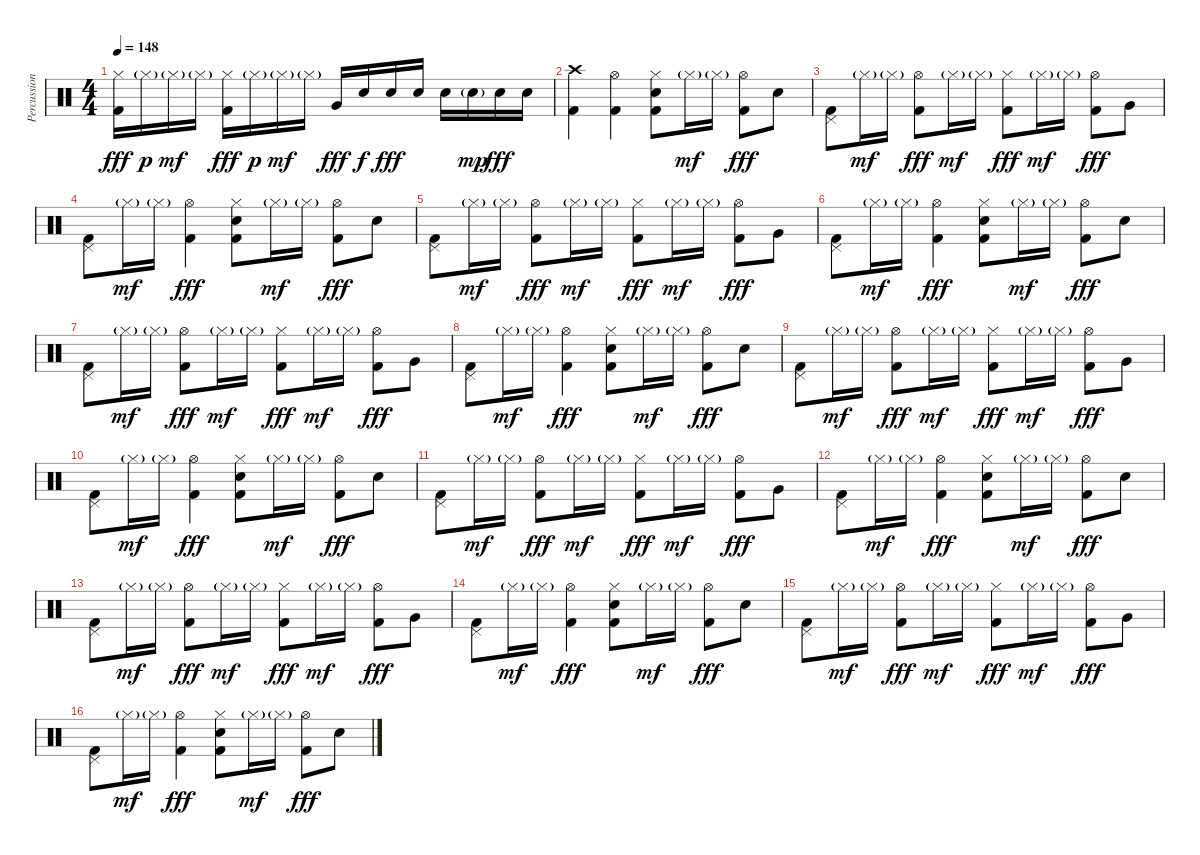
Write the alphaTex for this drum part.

\track ("Percussion" "Percussion") {instrument percussion}
\staff {score}
\articulation defaults
\ts (4 4)
\tempo 148
\clef neutral
\ks c
("Hi-Hat (closed)" "Kick (hit) 2").16{dy fff} "Hi-Hat (closed)"{g}.16{dy p} "Hi-Hat (closed)"{g}.16{dy mf} "Hi-Hat (closed)"{g}.16 ("Hi-Hat (closed)" "Kick (hit) 2").16{dy fff} "Hi-Hat (closed)"{g}.16{dy p} "Hi-Hat (closed)"{g}.16{dy mf} "Hi-Hat (closed)"{g}.16 "Very Low Tom (hit)".16{dy fff} "Electric Snare (hit)".16{dy f} "Electric Snare (hit)".16{dy fff} "Electric Snare (hit)".16 "Electric Snare (hit)".16 "Electric Snare (hit)"{g}.16{dy mp} "Electric Snare (hit)".16{dy fff} "Electric Snare (hit)".16 |
("Crash high (hit)" "Kick (hit) 2").4 ("Hi-Hat (open)" "Kick (hit) 2").4 ("Hi-Hat (closed)" "Kick (hit) 2" "Electric Snare (hit)").8 "Hi-Hat (closed)"{g}.16{dy mf} "Hi-Hat (closed)"{g}.16 ("Hi-Hat (open)" "Kick (hit) 2").8{dy fff} "Electric Snare (hit)".8 |
("Pedal Hi-Hat (hit)" "Kick (hit) 2").8 "Hi-Hat (closed)"{g}.16{dy mf} "Hi-Hat (closed)"{g}.16 ("Hi-Hat (open)" "Kick (hit) 2").8{dy fff} "Hi-Hat (closed)"{g}.16{dy mf} "Hi-Hat (closed)"{g}.16 ("Hi-Hat (closed)" "Kick (hit) 2").8{dy fff} "Hi-Hat (closed)"{g}.16{dy mf} "Hi-Hat (closed)"{g}.16 ("Hi-Hat (open)" "Kick (hit) 2").8{dy fff} "Very Low Tom (hit)".8 |
("Pedal Hi-Hat (hit)" "Kick (hit) 2").8 "Hi-Hat (closed)"{g}.16{dy mf} "Hi-Hat (closed)"{g}.16 ("Hi-Hat (open)" "Kick (hit) 2").4{dy fff} ("Hi-Hat (closed)" "Kick (hit) 2" "Electric Snare (hit)").8 "Hi-Hat (closed)"{g}.16{dy mf} "Hi-Hat (closed)"{g}.16 ("Hi-Hat (open)" "Kick (hit) 2").8{dy fff} "Electric Snare (hit)".8 |
("Pedal Hi-Hat (hit)" "Kick (hit) 2").8 "Hi-Hat (closed)"{g}.16{dy mf} "Hi-Hat (closed)"{g}.16 ("Hi-Hat (open)" "Kick (hit) 2").8{dy fff} "Hi-Hat (closed)"{g}.16{dy mf} "Hi-Hat (closed)"{g}.16 ("Hi-Hat (closed)" "Kick (hit) 2").8{dy fff} "Hi-Hat (closed)"{g}.16{dy mf} "Hi-Hat (closed)"{g}.16 ("Hi-Hat (open)" "Kick (hit) 2").8{dy fff} "Very Low Tom (hit)".8 |
("Pedal Hi-Hat (hit)" "Kick (hit) 2").8 "Hi-Hat (closed)"{g}.16{dy mf} "Hi-Hat (closed)"{g}.16 ("Hi-Hat (open)" "Kick (hit) 2").4{dy fff} ("Hi-Hat (closed)" "Kick (hit) 2" "Electric Snare (hit)").8 "Hi-Hat (closed)"{g}.16{dy mf} "Hi-Hat (closed)"{g}.16 ("Hi-Hat (open)" "Kick (hit) 2").8{dy fff} "Electric Snare (hit)".8 |
("Pedal Hi-Hat (hit)" "Kick (hit) 2").8 "Hi-Hat (closed)"{g}.16{dy mf} "Hi-Hat (closed)"{g}.16 ("Hi-Hat (open)" "Kick (hit) 2").8{dy fff} "Hi-Hat (closed)"{g}.16{dy mf} "Hi-Hat (closed)"{g}.16 ("Hi-Hat (closed)" "Kick (hit) 2").8{dy fff} "Hi-Hat (closed)"{g}.16{dy mf} "Hi-Hat (closed)"{g}.16 ("Hi-Hat (open)" "Kick (hit) 2").8{dy fff} "Very Low Tom (hit)".8 |
("Pedal Hi-Hat (hit)" "Kick (hit) 2").8 "Hi-Hat (closed)"{g}.16{dy mf} "Hi-Hat (closed)"{g}.16 ("Hi-Hat (open)" "Kick (hit) 2").4{dy fff} ("Hi-Hat (closed)" "Kick (hit) 2" "Electric Snare (hit)").8 "Hi-Hat (closed)"{g}.16{dy mf} "Hi-Hat (closed)"{g}.16 ("Hi-Hat (open)" "Kick (hit) 2").8{dy fff} "Electric Snare (hit)".8 |
("Pedal Hi-Hat (hit)" "Kick (hit) 2").8 "Hi-Hat (closed)"{g}.16{dy mf} "Hi-Hat (closed)"{g}.16 ("Hi-Hat (open)" "Kick (hit) 2").8{dy fff} "Hi-Hat (closed)"{g}.16{dy mf} "Hi-Hat (closed)"{g}.16 ("Hi-Hat (closed)" "Kick (hit) 2").8{dy fff} "Hi-Hat (closed)"{g}.16{dy mf} "Hi-Hat (closed)"{g}.16 ("Hi-Hat (open)" "Kick (hit) 2").8{dy fff} "Very Low Tom (hit)".8 |
("Pedal Hi-Hat (hit)" "Kick (hit) 2").8 "Hi-Hat (closed)"{g}.16{dy mf} "Hi-Hat (closed)"{g}.16 ("Hi-Hat (open)" "Kick (hit) 2").4{dy fff} ("Hi-Hat (closed)" "Kick (hit) 2" "Electric Snare (hit)").8 "Hi-Hat (closed)"{g}.16{dy mf} "Hi-Hat (closed)"{g}.16 ("Hi-Hat (open)" "Kick (hit) 2").8{dy fff} "Electric Snare (hit)".8 |
("Pedal Hi-Hat (hit)" "Kick (hit) 2").8 "Hi-Hat (closed)"{g}.16{dy mf} "Hi-Hat (closed)"{g}.16 ("Hi-Hat (open)" "Kick (hit) 2").8{dy fff} "Hi-Hat (closed)"{g}.16{dy mf} "Hi-Hat (closed)"{g}.16 ("Hi-Hat (closed)" "Kick (hit) 2").8{dy fff} "Hi-Hat (closed)"{g}.16{dy mf} "Hi-Hat (closed)"{g}.16 ("Hi-Hat (open)" "Kick (hit) 2").8{dy fff} "Very Low Tom (hit)".8 |
("Pedal Hi-Hat (hit)" "Kick (hit) 2").8 "Hi-Hat (closed)"{g}.16{dy mf} "Hi-Hat (closed)"{g}.16 ("Hi-Hat (open)" "Kick (hit) 2").4{dy fff} ("Hi-Hat (closed)" "Kick (hit) 2" "Electric Snare (hit)").8 "Hi-Hat (closed)"{g}.16{dy mf} "Hi-Hat (closed)"{g}.16 ("Hi-Hat (open)" "Kick (hit) 2").8{dy fff} "Electric Snare (hit)".8 |
("Pedal Hi-Hat (hit)" "Kick (hit) 2").8 "Hi-Hat (closed)"{g}.16{dy mf} "Hi-Hat (closed)"{g}.16 ("Hi-Hat (open)" "Kick (hit) 2").8{dy fff} "Hi-Hat (closed)"{g}.16{dy mf} "Hi-Hat (closed)"{g}.16 ("Hi-Hat (closed)" "Kick (hit) 2").8{dy fff} "Hi-Hat (closed)"{g}.16{dy mf} "Hi-Hat (closed)"{g}.16 ("Hi-Hat (open)" "Kick (hit) 2").8{dy fff} "Very Low Tom (hit)".8 |
("Pedal Hi-Hat (hit)" "Kick (hit) 2").8 "Hi-Hat (closed)"{g}.16{dy mf} "Hi-Hat (closed)"{g}.16 ("Hi-Hat (open)" "Kick (hit) 2").4{dy fff} ("Hi-Hat (closed)" "Kick (hit) 2" "Electric Snare (hit)").8 "Hi-Hat (closed)"{g}.16{dy mf} "Hi-Hat (closed)"{g}.16 ("Hi-Hat (open)" "Kick (hit) 2").8{dy fff} "Electric Snare (hit)".8 |
("Pedal Hi-Hat (hit)" "Kick (hit) 2").8 "Hi-Hat (closed)"{g}.16{dy mf} "Hi-Hat (closed)"{g}.16 ("Hi-Hat (open)" "Kick (hit) 2").8{dy fff} "Hi-Hat (closed)"{g}.16{dy mf} "Hi-Hat (closed)"{g}.16 ("Hi-Hat (closed)" "Kick (hit) 2").8{dy fff} "Hi-Hat (closed)"{g}.16{dy mf} "Hi-Hat (closed)"{g}.16 ("Hi-Hat (open)" "Kick (hit) 2").8{dy fff} "Very Low Tom (hit)".8 |
("Pedal Hi-Hat (hit)" "Kick (hit) 2").8 "Hi-Hat (closed)"{g}.16{dy mf} "Hi-Hat (closed)"{g}.16 ("Hi-Hat (open)" "Kick (hit) 2").4{dy fff} ("Hi-Hat (closed)" "Kick (hit) 2" "Electric Snare (hit)").8 "Hi-Hat (closed)"{g}.16{dy mf} "Hi-Hat (closed)"{g}.16 ("Hi-Hat (open)" "Kick (hit) 2").8{dy fff} "Electric Snare (hit)".8
